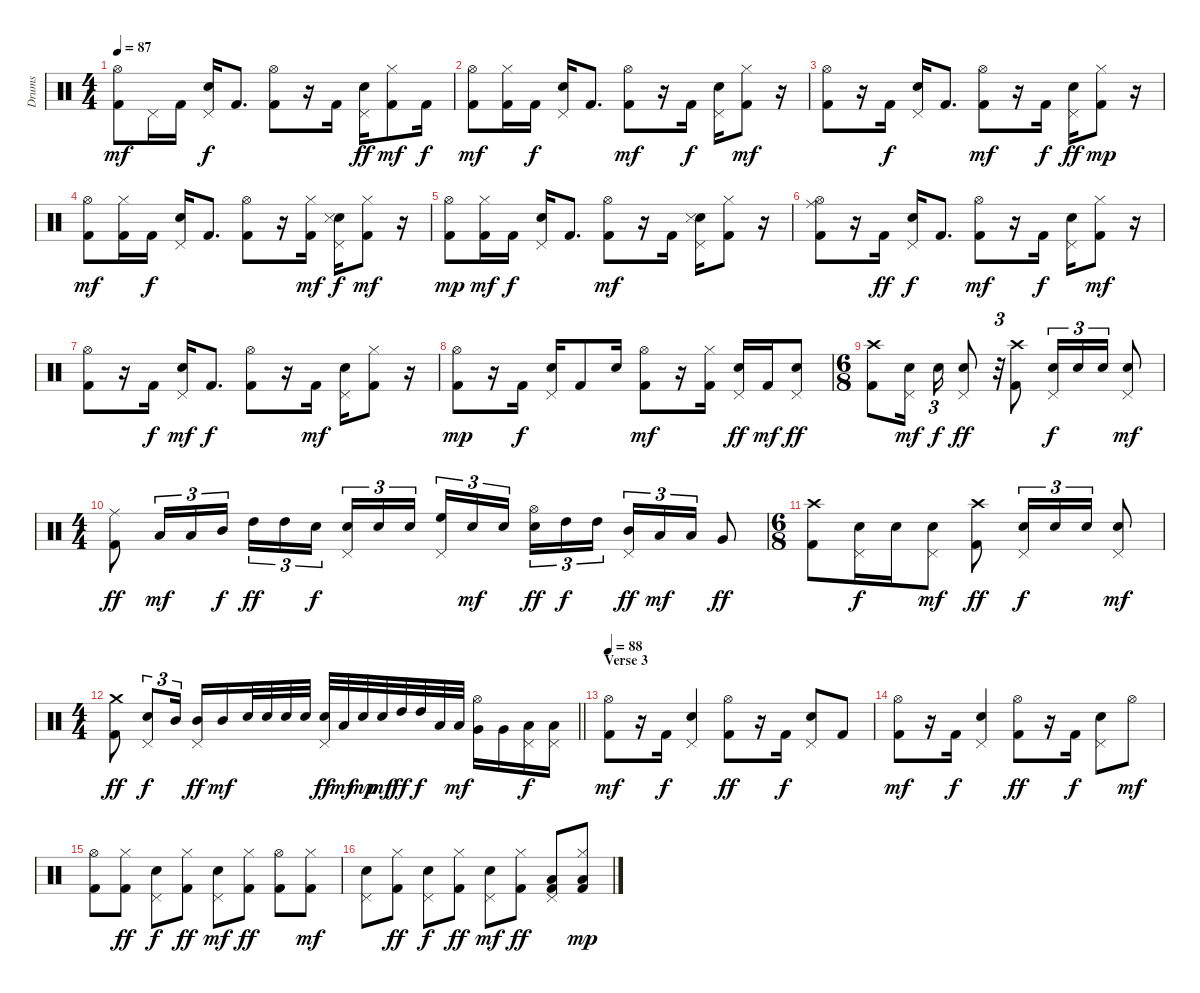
\track ("Drums" "Drums") {instrument percussion}
\staff {score}
\articulation defaults
\ts (4 4)
\tempo 87
\clef neutral
\ks c
("Hi-Hat (open)" "Kick (hit) 2").8{dy mf} "Pedal Hi-Hat (hit)".16 "Kick (hit) 2".16 ("Pedal Hi-Hat (hit)" "Snare (hit) 2").16{dy f} "Kick (hit) 2".8{d} ("Hi-Hat (open)" "Kick (hit) 2").8 r.16 "Kick (hit) 2".16 ("Pedal Hi-Hat (hit)" "Snare (hit) 2").16{dy ff} ("Hi-Hat (closed)" "Kick (hit) 2").8{dy mf} "Kick (hit) 2".16{dy f} |
("Hi-Hat (open)" "Kick (hit) 2").8{dy mf} ("Hi-Hat (closed)" "Kick (hit) 2").16 "Kick (hit) 2".16{dy f} ("Pedal Hi-Hat (hit)" "Snare (hit) 2").16 "Kick (hit) 2".8{d} ("Hi-Hat (open)" "Kick (hit) 2").8{dy mf} r.16 "Kick (hit) 2".16{dy f} ("Pedal Hi-Hat (hit)" "Snare (hit) 2").16 ("Hi-Hat (closed)" "Kick (hit) 2").8{dy mf} r.16 |
("Hi-Hat (open)" "Kick (hit) 2").8 r.16 "Kick (hit) 2".16{dy f} ("Pedal Hi-Hat (hit)" "Snare (hit) 2").16 "Kick (hit) 2".8{d} ("Hi-Hat (open)" "Kick (hit) 2").8{dy mf} r.16 "Kick (hit) 2".16{dy f} ("Pedal Hi-Hat (hit)" "Snare (hit) 2").16{dy ff} ("Hi-Hat (closed)" "Kick (hit) 2").8{dy mp} r.16 |
("Hi-Hat (open)" "Kick (hit) 2").8{dy mf} ("Hi-Hat (closed)" "Kick (hit) 2").16 "Kick (hit) 2".16{dy f} ("Pedal Hi-Hat (hit)" "Snare (hit) 2").16 "Kick (hit) 2".8{d} ("Hi-Hat (open)" "Kick (hit) 2").8 r.16 ("Hi-Hat (closed)" "Kick (hit) 2").16{dy mf} ("Pedal Hi-Hat (hit)" "Snare (hit) 2" "Snare (side stick) 3").16{dy f} ("Hi-Hat (closed)" "Kick (hit) 2").8{dy mf} r.16 |
("Hi-Hat (open)" "Kick (hit) 2").8{dy mp} ("Hi-Hat (closed)" "Kick (hit) 2").16{dy mf} "Kick (hit) 2".16{dy f} ("Pedal Hi-Hat (hit)" "Snare (hit) 2").16 "Kick (hit) 2".8{d} ("Hi-Hat (open)" "Kick (hit) 2").8{dy mf} r.16 "Kick (hit) 2".16 ("Pedal Hi-Hat (hit)" "Snare (hit) 2" "Snare (side stick) 3").16 ("Hi-Hat (closed)" "Kick (hit) 2").8 r.16 |
("Hi-Hat (open)" "Ride (middle)" "Kick (hit) 2").8 r.16 "Kick (hit) 2".16{dy ff} ("Pedal Hi-Hat (hit)" "Snare (hit) 2").16{dy f} "Kick (hit) 2".8{d} ("Hi-Hat (open)" "Kick (hit) 2").8{dy mf} r.16 "Kick (hit) 2".16{dy f} ("Pedal Hi-Hat (hit)" "Snare (hit) 2").16 ("Hi-Hat (closed)" "Kick (hit) 2").8{dy mf} r.16 |
("Hi-Hat (open)" "Kick (hit) 2").8 r.16 "Kick (hit) 2".16{dy f} ("Pedal Hi-Hat (hit)" "Snare (hit) 2").16{dy mf} "Kick (hit) 2".8{d dy f} ("Hi-Hat (open)" "Kick (hit) 2").8 r.16 "Kick (hit) 2".16{dy mf} ("Pedal Hi-Hat (hit)" "Snare (hit) 2").16 ("Hi-Hat (closed)" "Kick (hit) 2").8 r.16 |
("Hi-Hat (open)" "Kick (hit) 2").8{dy mp} r.16 "Kick (hit) 2".16{dy f} ("Pedal Hi-Hat (hit)" "Snare (hit) 2").16 "Kick (hit) 2".8 "Snare (hit) 2".16 ("Hi-Hat (open)" "Kick (hit) 2").8{dy mf} r.16 ("Hi-Hat (closed)" "Kick (hit) 2").16 ("Pedal Hi-Hat (hit)" "Snare (hit) 2").16{dy ff} "Kick (hit) 2".16{dy mf} ("Pedal Hi-Hat (hit)" "Snare (hit) 2").8{dy ff} |
\ts (6 8)
("Crash high (hit)" "Kick (hit) 2").8 ("Pedal Hi-Hat (hit)" "Snare (hit) 2").16{dy mf beam splitsecondary} "Snare (hit) 2".16{tu (3 2) dy f} ("Pedal Hi-Hat (hit)" "Snare (hit) 2").8{dy ff} r.32{tu (3 2)} ("Crash high (hit)" "Kick (hit) 2").8 ("Pedal Hi-Hat (hit)" "Snare (hit) 2").16{tu (3 2) dy f} "Snare (hit) 2".16{tu (3 2)} "Snare (hit) 2".16{tu (3 2)} ("Pedal Hi-Hat (hit)" "Snare (hit) 2").8{dy mf} |
\ts (4 4)
("Ride (middle)" "Kick (hit) 2").8{dy ff} "Low Tom (hit)".16{tu (3 2) dy mf} "Low Tom (hit)".16{tu (3 2)} "Mid Tom (hit)".16{tu (3 2) dy f} "High Tom (hit)".16{tu (3 2) dy ff} "High Tom (hit)".16{tu (3 2)} "Snare (hit) 2".16{tu (3 2) dy f beam splitsecondary} ("Pedal Hi-Hat (hit)" "Snare (hit) 2").16{tu (3 2)} "Snare (hit) 2".16{tu (3 2)} "Snare (hit) 2".16{tu (3 2)} ("Pedal Hi-Hat (hit)" "High Floor Tom (hit)").16{tu (3 2)} "Snare (hit) 2".16{tu (3 2) dy mf} "Snare (hit) 2".16{tu (3 2) beam splitsecondary} ("Hi-Hat (open)" "Snare (hit) 2").16{tu (3 2) dy ff} "High Tom (hit)".16{tu (3 2) dy f} "High Tom (hit)".16{tu (3 2)} ("Pedal Hi-Hat (hit)" "Mid Tom (hit)").16{tu (3 2) dy ff} "Low Tom (hit)".16{tu (3 2) dy mf} "Low Tom (hit)".16{tu (3 2)} "Very Low Tom (hit)".8{dy ff} |
\ts (6 8)
("Crash high (hit)" "Kick (hit) 2").8 ("Pedal Hi-Hat (hit)" "Snare (hit) 2").16{dy f} "Snare (hit) 2".16 ("Pedal Hi-Hat (hit)" "Snare (hit) 2").8{dy mf} ("Crash high (hit)" "Kick (hit) 2").8{dy ff} ("Pedal Hi-Hat (hit)" "Snare (hit) 2").16{tu (3 2) dy f} "Snare (hit) 2".16{tu (3 2)} "Snare (hit) 2".16{tu (3 2)} ("Pedal Hi-Hat (hit)" "Snare (hit) 2").8{dy mf} |
\ts (4 4)
\barLineRight lightlight
("Crash medium (hit)" "Kick (hit) 2").8{dy ff} ("Pedal Hi-Hat (hit)" "Snare (hit) 2").8{tu (3 2) dy f} "Mid Tom (hit)".16{tu (3 2)} ("Pedal Hi-Hat (hit)" "Mid Tom (hit)").16{dy ff} "Mid Tom (hit)".16{dy mf} "Snare (hit) 2".32 "Snare (hit) 2".32 "Snare (hit) 2".32 "Snare (hit) 2".32 ("Pedal Hi-Hat (hit)" "Snare (hit) 2").32{dy ff} "Low Tom (hit)".32{dy mf} "Snare (hit) 2".32{dy mp} "Snare (hit) 2".32{dy mf} "High Tom (hit)".32{dy ff} "High Tom (hit)".32{dy f} "Low Tom (hit)".32 "Low Tom (hit)".32{dy mf} ("Hi-Hat (open)" "Very Low Tom (hit)").16 "Very Low Tom (hit)".16 ("Pedal Hi-Hat (hit)" "Low Tom (hit)").16{dy f} ("Pedal Hi-Hat (hit)" "Low Tom (hit)").16 |
\section ("" "Verse 3")
\tempo 88
("Hi-Hat (open)" "Kick (hit) 2").8{dy mf} r.16 "Kick (hit) 2".16{dy f} ("Pedal Hi-Hat (hit)" "Snare (hit) 2").4 ("Hi-Hat (open)" "Kick (hit) 2").8{dy ff} r.16 "Kick (hit) 2".16{dy f} ("Pedal Hi-Hat (hit)" "Snare (hit) 2").8 "Kick (hit) 2".8 |
("Hi-Hat (open)" "Kick (hit) 2").8{dy mf} r.16 "Kick (hit) 2".16{dy f} ("Pedal Hi-Hat (hit)" "Snare (hit) 2").4 ("Hi-Hat (open)" "Kick (hit) 2").8{dy ff} r.16 "Kick (hit) 2".16{dy f} ("Pedal Hi-Hat (hit)" "Snare (hit) 2").8 "Hi-Hat (open)".8{dy mf} |
("Hi-Hat (open)" "Kick (hit) 2").8 ("Hi-Hat (closed)" "Kick (hit) 2").8{dy ff} ("Pedal Hi-Hat (hit)" "Snare (hit) 2").8{dy f} ("Hi-Hat (closed)" "Kick (hit) 2").8{dy ff} ("Pedal Hi-Hat (hit)" "Snare (hit) 2").8{dy mf} ("Hi-Hat (closed)" "Kick (hit) 2").8{dy ff} ("Hi-Hat (open)" "Kick (hit) 2").8 ("Hi-Hat (closed)" "Kick (hit) 2").8{dy mf} |
("Pedal Hi-Hat (hit)" "Snare (hit) 2").8 ("Hi-Hat (closed)" "Kick (hit) 2").8{dy ff} ("Pedal Hi-Hat (hit)" "Snare (hit) 2").8{dy f} ("Hi-Hat (closed)" "Kick (hit) 2").8{dy ff} ("Pedal Hi-Hat (hit)" "Snare (hit) 2").8{dy mf} ("Hi-Hat (closed)" "Kick (hit) 2").8{dy ff} ("Pedal Hi-Hat (hit)" "Low Tom (hit)" "Kick (hit) 2").8 ("Hi-Hat (closed)" "Low Tom (hit)" "Kick (hit) 2").8{dy mp}
